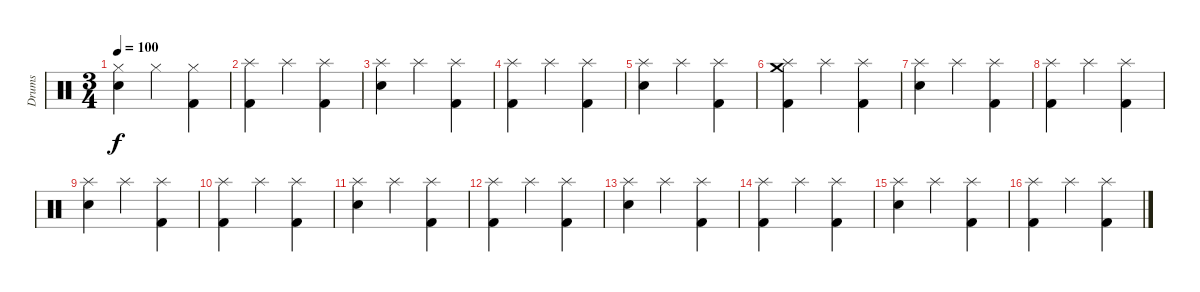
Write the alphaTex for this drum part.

\track ("Drums" "Drums") {instrument percussion}
\staff {score}
\articulation defaults
\ts (3 4)
\tempo 100
\clef neutral
\ks c
("Hi-Hat (closed)" "Electric Snare (hit)").4{dy f} "Hi-Hat (closed)".4 ("Hi-Hat (closed)" "Kick (hit) 2").4 |
("Splash (hit)" "Kick (hit) 2").4 "Splash (hit)".4 ("Splash (hit)" "Kick (hit) 2").4 |
("Splash (hit)" "Electric Snare (hit)").4 "Splash (hit)".4 ("Splash (hit)" "Kick (hit) 2").4 |
("Splash (hit)" "Kick (hit) 2").4 "Splash (hit)".4 ("Splash (hit)" "Kick (hit) 2").4 |
("Splash (hit)" "Electric Snare (hit)").4 "Splash (hit)".4 ("Splash (hit)" "Kick (hit) 2").4 |
("Splash (hit)" "Crash medium (hit)" "Kick (hit) 2").4 "Splash (hit)".4 ("Splash (hit)" "Kick (hit) 2").4 |
("Splash (hit)" "Electric Snare (hit)").4 "Splash (hit)".4 ("Splash (hit)" "Kick (hit) 2").4 |
("Splash (hit)" "Kick (hit) 2").4 "Splash (hit)".4 ("Splash (hit)" "Kick (hit) 2").4 |
("Splash (hit)" "Electric Snare (hit)").4 "Splash (hit)".4 ("Splash (hit)" "Kick (hit) 2").4 |
("Splash (hit)" "Kick (hit) 2").4 "Splash (hit)".4 ("Splash (hit)" "Kick (hit) 2").4 |
("Splash (hit)" "Electric Snare (hit)").4 "Splash (hit)".4 ("Splash (hit)" "Kick (hit) 2").4 |
("Splash (hit)" "Kick (hit) 2").4 "Splash (hit)".4 ("Splash (hit)" "Kick (hit) 2").4 |
("Splash (hit)" "Electric Snare (hit)").4 "Splash (hit)".4 ("Splash (hit)" "Kick (hit) 2").4 |
("Splash (hit)" "Kick (hit) 2").4 "Splash (hit)".4 ("Splash (hit)" "Kick (hit) 2").4 |
("Splash (hit)" "Electric Snare (hit)").4 "Splash (hit)".4 ("Splash (hit)" "Kick (hit) 2").4 |
("Splash (hit)" "Kick (hit) 2").4 "Splash (hit)".4 ("Splash (hit)" "Kick (hit) 2").4
